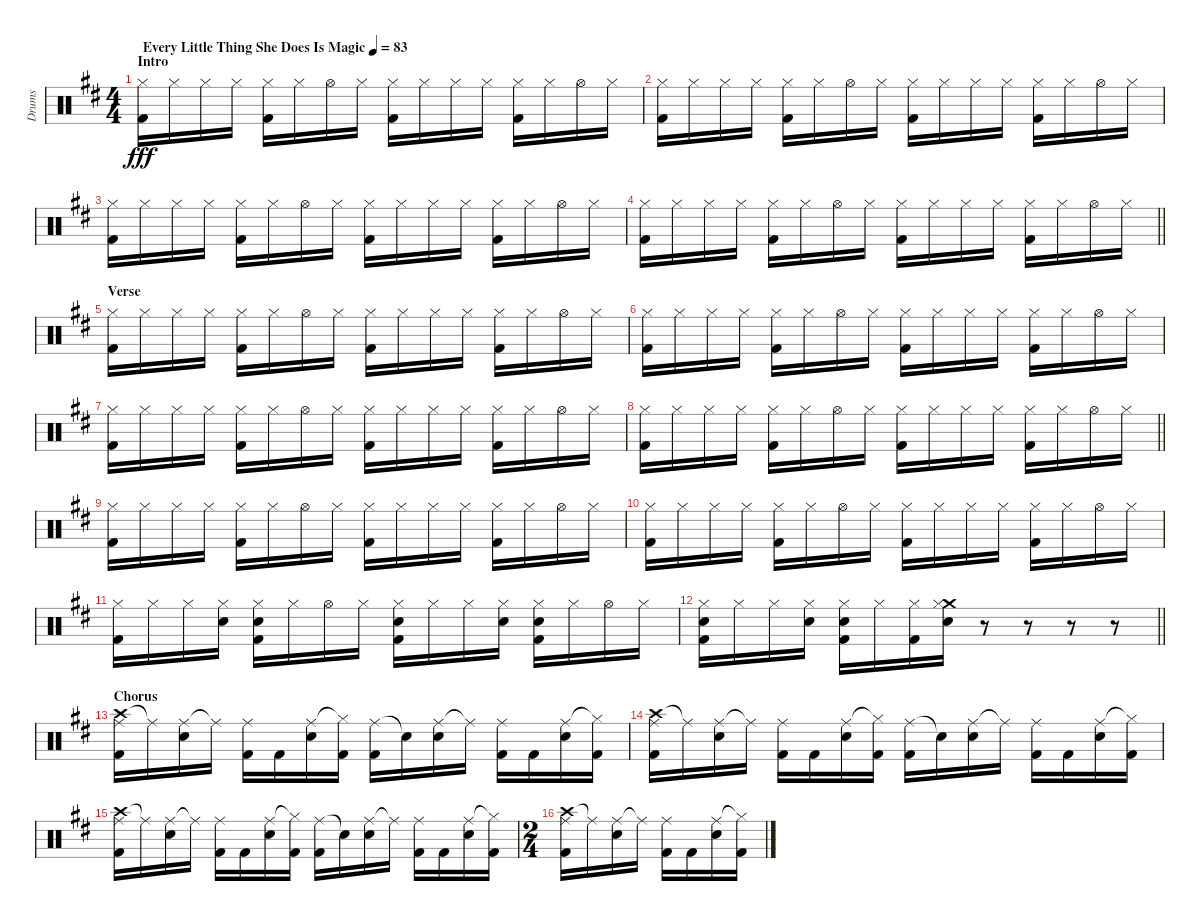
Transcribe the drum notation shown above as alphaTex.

\track ("Drums" "Drums") {instrument percussion}
\staff {score}
\articulation defaults
\ts (4 4)
\section ("" "Intro")
\tempo (83 "Every Little Thing She Does Is Magic")
\clef neutral
\ks d
("Hi-Hat (closed)" "Kick (hit) 2").16{dy fff} "Hi-Hat (closed)".16 "Hi-Hat (closed)".16 "Hi-Hat (closed)".16 ("Hi-Hat (closed)" "Kick (hit) 2").16 "Hi-Hat (closed)".16 "Hi-Hat (open)".16 "Hi-Hat (closed)".16 ("Hi-Hat (closed)" "Kick (hit) 2").16 "Hi-Hat (closed)".16 "Hi-Hat (closed)".16 "Hi-Hat (closed)".16 ("Hi-Hat (closed)" "Kick (hit) 2").16 "Hi-Hat (closed)".16 "Hi-Hat (open)".16 "Hi-Hat (closed)".16 |
("Hi-Hat (closed)" "Kick (hit) 2").16 "Hi-Hat (closed)".16 "Hi-Hat (closed)".16 "Hi-Hat (closed)".16 ("Hi-Hat (closed)" "Kick (hit) 2").16 "Hi-Hat (closed)".16 "Hi-Hat (open)".16 "Hi-Hat (closed)".16 ("Hi-Hat (closed)" "Kick (hit) 2").16 "Hi-Hat (closed)".16 "Hi-Hat (closed)".16 "Hi-Hat (closed)".16 ("Hi-Hat (closed)" "Kick (hit) 2").16 "Hi-Hat (closed)".16 "Hi-Hat (open)".16 "Hi-Hat (closed)".16 |
("Hi-Hat (closed)" "Kick (hit) 2").16 "Hi-Hat (closed)".16 "Hi-Hat (closed)".16 "Hi-Hat (closed)".16 ("Hi-Hat (closed)" "Kick (hit) 2").16 "Hi-Hat (closed)".16 "Hi-Hat (open)".16 "Hi-Hat (closed)".16 ("Hi-Hat (closed)" "Kick (hit) 2").16 "Hi-Hat (closed)".16 "Hi-Hat (closed)".16 "Hi-Hat (closed)".16 ("Hi-Hat (closed)" "Kick (hit) 2").16 "Hi-Hat (closed)".16 "Hi-Hat (open)".16 "Hi-Hat (closed)".16 |
\barLineRight lightlight
("Hi-Hat (closed)" "Kick (hit) 2").16 "Hi-Hat (closed)".16 "Hi-Hat (closed)".16 "Hi-Hat (closed)".16 ("Hi-Hat (closed)" "Kick (hit) 2").16 "Hi-Hat (closed)".16 "Hi-Hat (open)".16 "Hi-Hat (closed)".16 ("Hi-Hat (closed)" "Kick (hit) 2").16 "Hi-Hat (closed)".16 "Hi-Hat (closed)".16 "Hi-Hat (closed)".16 ("Hi-Hat (closed)" "Kick (hit) 2").16 "Hi-Hat (closed)".16 "Hi-Hat (open)".16 "Hi-Hat (closed)".16 |
\section ("" "Verse")
("Hi-Hat (closed)" "Kick (hit) 2").16 "Hi-Hat (closed)".16 "Hi-Hat (closed)".16 "Hi-Hat (closed)".16 ("Hi-Hat (closed)" "Kick (hit) 2").16 "Hi-Hat (closed)".16 "Hi-Hat (open)".16 "Hi-Hat (closed)".16 ("Hi-Hat (closed)" "Kick (hit) 2").16 "Hi-Hat (closed)".16 "Hi-Hat (closed)".16 "Hi-Hat (closed)".16 ("Hi-Hat (closed)" "Kick (hit) 2").16 "Hi-Hat (closed)".16 "Hi-Hat (open)".16 "Hi-Hat (closed)".16 |
("Hi-Hat (closed)" "Kick (hit) 2").16 "Hi-Hat (closed)".16 "Hi-Hat (closed)".16 "Hi-Hat (closed)".16 ("Hi-Hat (closed)" "Kick (hit) 2").16 "Hi-Hat (closed)".16 "Hi-Hat (open)".16 "Hi-Hat (closed)".16 ("Hi-Hat (closed)" "Kick (hit) 2").16 "Hi-Hat (closed)".16 "Hi-Hat (closed)".16 "Hi-Hat (closed)".16 ("Hi-Hat (closed)" "Kick (hit) 2").16 "Hi-Hat (closed)".16 "Hi-Hat (open)".16 "Hi-Hat (closed)".16 |
("Hi-Hat (closed)" "Kick (hit) 2").16 "Hi-Hat (closed)".16 "Hi-Hat (closed)".16 "Hi-Hat (closed)".16 ("Hi-Hat (closed)" "Kick (hit) 2").16 "Hi-Hat (closed)".16 "Hi-Hat (open)".16 "Hi-Hat (closed)".16 ("Hi-Hat (closed)" "Kick (hit) 2").16 "Hi-Hat (closed)".16 "Hi-Hat (closed)".16 "Hi-Hat (closed)".16 ("Hi-Hat (closed)" "Kick (hit) 2").16 "Hi-Hat (closed)".16 "Hi-Hat (open)".16 "Hi-Hat (closed)".16 |
\barLineRight lightlight
("Hi-Hat (closed)" "Kick (hit) 2").16 "Hi-Hat (closed)".16 "Hi-Hat (closed)".16 "Hi-Hat (closed)".16 ("Hi-Hat (closed)" "Kick (hit) 2").16 "Hi-Hat (closed)".16 "Hi-Hat (open)".16 "Hi-Hat (closed)".16 ("Hi-Hat (closed)" "Kick (hit) 2").16 "Hi-Hat (closed)".16 "Hi-Hat (closed)".16 "Hi-Hat (closed)".16 ("Hi-Hat (closed)" "Kick (hit) 2").16 "Hi-Hat (closed)".16 "Hi-Hat (open)".16 "Hi-Hat (closed)".16 |
("Hi-Hat (closed)" "Kick (hit) 2").16 "Hi-Hat (closed)".16 "Hi-Hat (closed)".16 "Hi-Hat (closed)".16 ("Hi-Hat (closed)" "Kick (hit) 2").16 "Hi-Hat (closed)".16 "Hi-Hat (open)".16 "Hi-Hat (closed)".16 ("Hi-Hat (closed)" "Kick (hit) 2").16 "Hi-Hat (closed)".16 "Hi-Hat (closed)".16 "Hi-Hat (closed)".16 ("Hi-Hat (closed)" "Kick (hit) 2").16 "Hi-Hat (closed)".16 "Hi-Hat (open)".16 "Hi-Hat (closed)".16 |
("Hi-Hat (closed)" "Kick (hit) 2").16 "Hi-Hat (closed)".16 "Hi-Hat (closed)".16 "Hi-Hat (closed)".16 ("Hi-Hat (closed)" "Kick (hit) 2").16 "Hi-Hat (closed)".16 "Hi-Hat (open)".16 "Hi-Hat (closed)".16 ("Hi-Hat (closed)" "Kick (hit) 2").16 "Hi-Hat (closed)".16 "Hi-Hat (closed)".16 "Hi-Hat (closed)".16 ("Hi-Hat (closed)" "Kick (hit) 2").16 "Hi-Hat (closed)".16 "Hi-Hat (open)".16 "Hi-Hat (closed)".16 |
("Hi-Hat (closed)" "Kick (hit) 2").16 "Hi-Hat (closed)".16 "Hi-Hat (closed)".16 ("Hi-Hat (closed)" "Electric Snare (hit)").16 ("Hi-Hat (closed)" "Electric Snare (hit)" "Kick (hit) 2").16 "Hi-Hat (closed)".16 "Hi-Hat (open)".16 "Hi-Hat (closed)".16 ("Hi-Hat (closed)" "Electric Snare (hit)" "Kick (hit) 2").16 "Hi-Hat (closed)".16 "Hi-Hat (closed)".16 ("Hi-Hat (closed)" "Electric Snare (hit)").16 ("Hi-Hat (closed)" "Electric Snare (hit)" "Kick (hit) 2").16 "Hi-Hat (closed)".16 "Hi-Hat (open)".16 "Hi-Hat (closed)".16 |
\barLineRight lightlight
("Hi-Hat (closed)" "Electric Snare (hit)" "Kick (hit) 2").16 "Hi-Hat (closed)".16 "Hi-Hat (closed)".16 ("Hi-Hat (closed)" "Electric Snare (hit)").16 ("Hi-Hat (closed)" "Electric Snare (hit)" "Kick (hit) 2").16 "Hi-Hat (closed)".16 ("Hi-Hat (closed)" "Kick (hit) 2").16 ("Crash medium (hit)" "Hi-Hat (closed)" "Electric Snare (hit)").16 r.8 r.8 r.8 r.8 |
\section ("" "Chorus")
("Crash high (hit)" "Ride (middle)" "Kick (hit) 2").16 "Ride (middle)"{t}.16 ("Ride (middle)" "Electric Snare (hit)").16 "Ride (middle)"{t}.16 ("Ride (middle)" "Kick (hit) 2").16 "Kick (hit) 2".16 ("Ride (middle)" "Electric Snare (hit)").16 ("Hi-Hat (closed)"{t} "Kick (hit) 2").16 ("Ride (middle)" "Kick (hit) 2").16 "Snare (hit)"{t}.16 ("Ride (middle)" "Electric Snare (hit)").16 "Ride (middle)"{t}.16 ("Ride (middle)" "Kick (hit) 2").16 "Kick (hit) 2".16 ("Ride (middle)" "Electric Snare (hit)").16 ("Hi-Hat (closed)"{t} "Kick (hit) 2").16 |
("Crash high (hit)" "Ride (middle)" "Kick (hit) 2").16 "Ride (middle)"{t}.16 ("Ride (middle)" "Electric Snare (hit)").16 "Ride (middle)"{t}.16 ("Ride (middle)" "Kick (hit) 2").16 "Kick (hit) 2".16 ("Ride (middle)" "Electric Snare (hit)").16 ("Hi-Hat (closed)"{t} "Kick (hit) 2").16 ("Ride (middle)" "Kick (hit) 2").16 "Snare (hit)"{t}.16 ("Ride (middle)" "Electric Snare (hit)").16 "Ride (middle)"{t}.16 ("Ride (middle)" "Kick (hit) 2").16 "Kick (hit) 2".16 ("Ride (middle)" "Electric Snare (hit)").16 ("Hi-Hat (closed)"{t} "Kick (hit) 2").16 |
("Crash high (hit)" "Ride (middle)" "Kick (hit) 2").16 "Ride (middle)"{t}.16 ("Ride (middle)" "Electric Snare (hit)").16 "Ride (middle)"{t}.16 ("Ride (middle)" "Kick (hit) 2").16 "Kick (hit) 2".16 ("Ride (middle)" "Electric Snare (hit)").16 ("Hi-Hat (closed)"{t} "Kick (hit) 2").16 ("Ride (middle)" "Kick (hit) 2").16 "Snare (hit)"{t}.16 ("Ride (middle)" "Electric Snare (hit)").16 "Ride (middle)"{t}.16 ("Ride (middle)" "Kick (hit) 2").16 "Kick (hit) 2".16 ("Ride (middle)" "Electric Snare (hit)").16 ("Hi-Hat (closed)"{t} "Kick (hit) 2").16 |
\ts (2 4)
("Crash high (hit)" "Ride (middle)" "Kick (hit) 2").16 "Ride (middle)"{t}.16 ("Ride (middle)" "Electric Snare (hit)").16 "Ride (middle)"{t}.16 ("Ride (middle)" "Kick (hit) 2").16 "Kick (hit) 2".16 ("Ride (middle)" "Electric Snare (hit)").16 ("Hi-Hat (closed)"{t} "Kick (hit) 2").16
